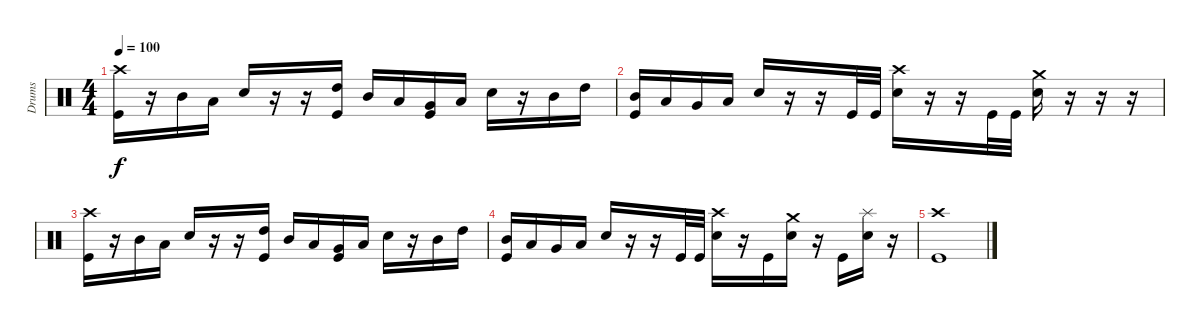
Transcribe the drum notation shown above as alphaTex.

\track ("Drums" "Drums") {instrument percussion}
\staff {score}
\articulation defaults
\ts (4 4)
\tempo 100
\clef neutral
\ks c
("Crash high (hit)" "Kick (hit)").16{dy f} r.16 "Mid Tom (hit)".16 "Low Tom (hit)".16 "Electric Snare (hit)".16 r.16 r.16 ("High Tom (hit)" "Kick (hit)").16 "Mid Tom (hit)".16 "Low Tom (hit)".16 ("Very Low Tom (hit)" "Kick (hit)").16 "Low Floor Tom (hit)".16 "Electric Snare (hit)".16 r.16 "Mid Tom (hit)".16 "High Tom (hit)".16 |
("Mid Tom (hit)" "Kick (hit)").16 "Low Tom (hit)".16 "Very Low Tom (hit)".16 "Low Floor Tom (hit)".16 "Electric Snare (hit)".16 r.16 r.16 "Kick (hit)".32 "Kick (hit)".32 ("Crash high (hit)" "Electric Snare (hit)").16 r.16 r.16 "Kick (hit)".32 "Kick (hit)".32 ("Crash medium (hit)" "Electric Snare (hit)").16 r.16 r.16 r.16 |
("Crash high (hit)" "Kick (hit)").16 r.16 "Mid Tom (hit)".16 "Low Tom (hit)".16 "Electric Snare (hit)".16 r.16 r.16 ("High Tom (hit)" "Kick (hit)").16 "Mid Tom (hit)".16 "Low Tom (hit)".16 ("Very Low Tom (hit)" "Kick (hit)").16 "Low Floor Tom (hit)".16 "Electric Snare (hit)".16 r.16 "Mid Tom (hit)".16 "High Tom (hit)".16 |
("Mid Tom (hit)" "Kick (hit)").16 "Low Tom (hit)".16 "Very Low Tom (hit)".16 "Low Floor Tom (hit)".16 "Electric Snare (hit)".16 r.16 r.16 "Kick (hit)".32 "Kick (hit)".32 ("Crash high (hit)" "Electric Snare (hit)").16 r.16 "Kick (hit)".16 ("Crash medium (hit)" "Electric Snare (hit)").16 r.16 "Kick (hit)".16 ("Splash (hit)" "Electric Snare (hit)").16 r.16 |
("Crash high (hit)" "Kick (hit)").1
